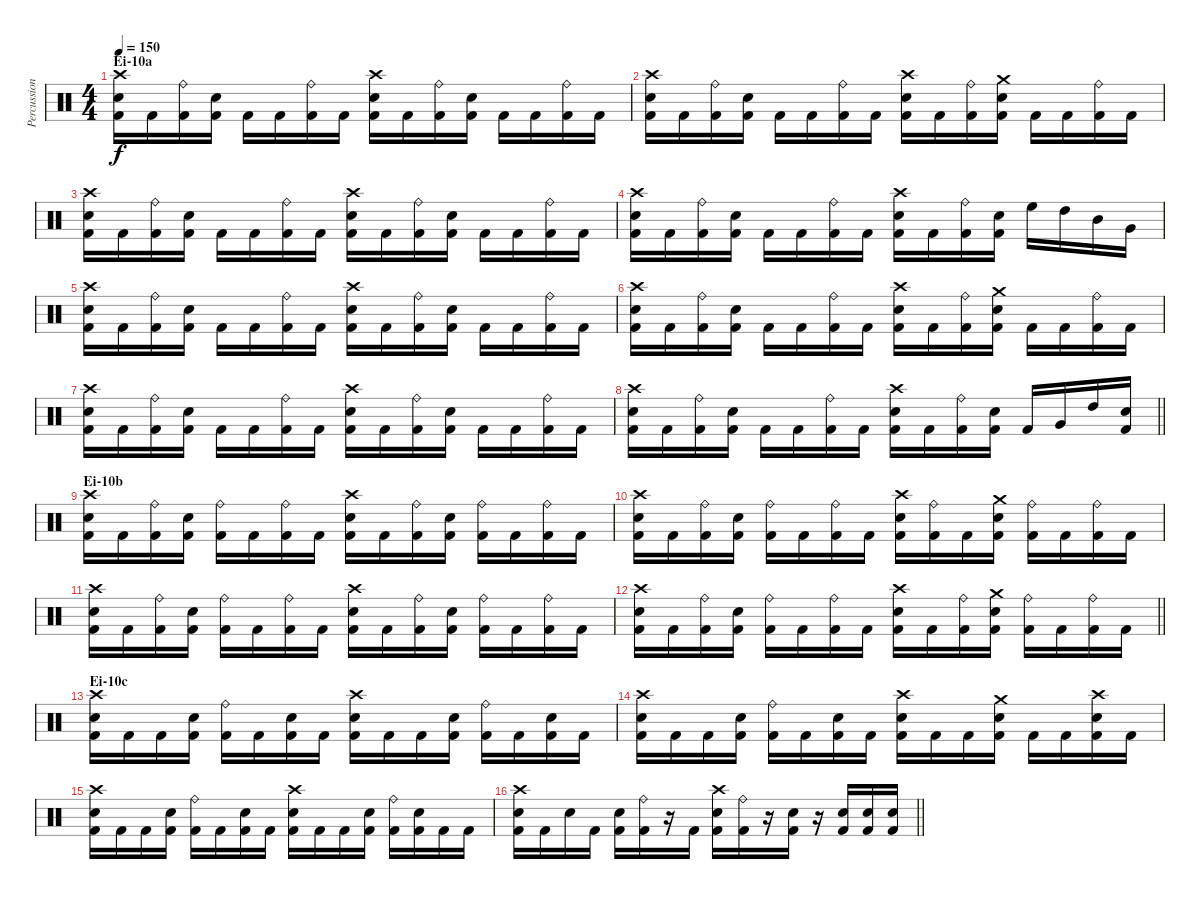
\track ("Percussion" "Percussion") {instrument percussion}
\staff {score}
\articulation defaults
\ts (4 4)
\section ("" "Ei-10a")
\tempo 150
\clef neutral
\ks c
("Crash high (hit)" "Electric Snare (hit)" "Kick (hit) 2").16{dy f} "Kick (hit) 2".16 ("Ride (bell)" "Kick (hit) 2").16 ("Electric Snare (hit)" "Kick (hit) 2").16 "Kick (hit) 2".16 "Kick (hit) 2".16 ("Ride (bell)" "Kick (hit) 2").16 "Kick (hit) 2".16 ("Crash high (hit)" "Electric Snare (hit)" "Kick (hit) 2").16 "Kick (hit) 2".16 ("Ride (bell)" "Kick (hit) 2").16 ("Electric Snare (hit)" "Kick (hit) 2").16 "Kick (hit) 2".16 "Kick (hit) 2".16 ("Ride (bell)" "Kick (hit) 2").16 "Kick (hit) 2".16 |
("Crash high (hit)" "Electric Snare (hit)" "Kick (hit) 2").16 "Kick (hit) 2".16 ("Ride (bell)" "Kick (hit) 2").16 ("Electric Snare (hit)" "Kick (hit) 2").16 "Kick (hit) 2".16 "Kick (hit) 2".16 ("Ride (bell)" "Kick (hit) 2").16 "Kick (hit) 2".16 ("Crash high (hit)" "Electric Snare (hit)" "Kick (hit) 2").16 "Kick (hit) 2".16 ("Ride (bell)" "Kick (hit) 2").16 ("Crash medium (hit)" "Electric Snare (hit)" "Kick (hit) 2").16 "Kick (hit) 2".16 "Kick (hit) 2".16 ("Ride (bell)" "Kick (hit) 2").16 "Kick (hit) 2".16 |
("Crash high (hit)" "Electric Snare (hit)" "Kick (hit) 2").16 "Kick (hit) 2".16 ("Ride (bell)" "Kick (hit) 2").16 ("Electric Snare (hit)" "Kick (hit) 2").16 "Kick (hit) 2".16 "Kick (hit) 2".16 ("Ride (bell)" "Kick (hit) 2").16 "Kick (hit) 2".16 ("Crash high (hit)" "Electric Snare (hit)" "Kick (hit) 2").16 "Kick (hit) 2".16 ("Ride (bell)" "Kick (hit) 2").16 ("Electric Snare (hit)" "Kick (hit) 2").16 "Kick (hit) 2".16 "Kick (hit) 2".16 ("Ride (bell)" "Kick (hit) 2").16 "Kick (hit) 2".16 |
("Crash high (hit)" "Electric Snare (hit)" "Kick (hit) 2").16 "Kick (hit) 2".16 ("Ride (bell)" "Kick (hit) 2").16 ("Electric Snare (hit)" "Kick (hit) 2").16 "Kick (hit) 2".16 "Kick (hit) 2".16 ("Ride (bell)" "Kick (hit) 2").16 "Kick (hit) 2".16 ("Crash high (hit)" "Electric Snare (hit)" "Kick (hit) 2").16 "Kick (hit) 2".16 ("Ride (bell)" "Kick (hit) 2").16 ("Electric Snare (hit)" "Kick (hit) 2").16 "High Floor Tom (hit)".16 "High Tom (hit)".16 "Mid Tom (hit)".16 "Very Low Tom (hit)".16 |
("Crash high (hit)" "Electric Snare (hit)" "Kick (hit) 2").16 "Kick (hit) 2".16 ("Ride (bell)" "Kick (hit) 2").16 ("Electric Snare (hit)" "Kick (hit) 2").16 "Kick (hit) 2".16 "Kick (hit) 2".16 ("Ride (bell)" "Kick (hit) 2").16 "Kick (hit) 2".16 ("Crash high (hit)" "Electric Snare (hit)" "Kick (hit) 2").16 "Kick (hit) 2".16 ("Ride (bell)" "Kick (hit) 2").16 ("Electric Snare (hit)" "Kick (hit) 2").16 "Kick (hit) 2".16 "Kick (hit) 2".16 ("Ride (bell)" "Kick (hit) 2").16 "Kick (hit) 2".16 |
("Crash high (hit)" "Electric Snare (hit)" "Kick (hit) 2").16 "Kick (hit) 2".16 ("Ride (bell)" "Kick (hit) 2").16 ("Electric Snare (hit)" "Kick (hit) 2").16 "Kick (hit) 2".16 "Kick (hit) 2".16 ("Ride (bell)" "Kick (hit) 2").16 "Kick (hit) 2".16 ("Crash high (hit)" "Electric Snare (hit)" "Kick (hit) 2").16 "Kick (hit) 2".16 ("Ride (bell)" "Kick (hit) 2").16 ("Crash medium (hit)" "Electric Snare (hit)" "Kick (hit) 2").16 "Kick (hit) 2".16 "Kick (hit) 2".16 ("Ride (bell)" "Kick (hit) 2").16 "Kick (hit) 2".16 |
("Crash high (hit)" "Electric Snare (hit)" "Kick (hit) 2").16 "Kick (hit) 2".16 ("Ride (bell)" "Kick (hit) 2").16 ("Electric Snare (hit)" "Kick (hit) 2").16 "Kick (hit) 2".16 "Kick (hit) 2".16 ("Ride (bell)" "Kick (hit) 2").16 "Kick (hit) 2".16 ("Crash high (hit)" "Electric Snare (hit)" "Kick (hit) 2").16 "Kick (hit) 2".16 ("Ride (bell)" "Kick (hit) 2").16 ("Electric Snare (hit)" "Kick (hit) 2").16 "Kick (hit) 2".16 "Kick (hit) 2".16 ("Ride (bell)" "Kick (hit) 2").16 "Kick (hit) 2".16 |
\barLineRight lightlight
("Crash high (hit)" "Electric Snare (hit)" "Kick (hit) 2").16 "Kick (hit) 2".16 ("Ride (bell)" "Kick (hit) 2").16 ("Electric Snare (hit)" "Kick (hit) 2").16 "Kick (hit) 2".16 "Kick (hit) 2".16 ("Ride (bell)" "Kick (hit) 2").16 "Kick (hit) 2".16 ("Crash high (hit)" "Electric Snare (hit)" "Kick (hit) 2").16 "Kick (hit) 2".16 ("Ride (bell)" "Kick (hit) 2").16 ("Electric Snare (hit)" "Kick (hit) 2").16 "Kick (hit) 2".16 "Very Low Tom (hit)".16 "High Tom (hit)".16 ("Electric Snare (hit)" "Kick (hit) 2").16 |
\section ("" "Ei-10b")
("Crash high (hit)" "Electric Snare (hit)" "Kick (hit) 2").16 "Kick (hit) 2".16 ("Ride (bell)" "Kick (hit) 2").16 ("Electric Snare (hit)" "Kick (hit) 2").16 ("Ride (bell)" "Kick (hit) 2").16 "Kick (hit) 2".16 ("Ride (bell)" "Kick (hit) 2").16 "Kick (hit) 2".16 ("Crash high (hit)" "Electric Snare (hit)" "Kick (hit) 2").16 "Kick (hit) 2".16 ("Ride (bell)" "Kick (hit) 2").16 ("Electric Snare (hit)" "Kick (hit) 2").16 ("Ride (bell)" "Kick (hit) 2").16 "Kick (hit) 2".16 ("Ride (bell)" "Kick (hit) 2").16 "Kick (hit) 2".16 |
("Crash high (hit)" "Electric Snare (hit)" "Kick (hit) 2").16 "Kick (hit) 2".16 ("Ride (bell)" "Kick (hit) 2").16 ("Electric Snare (hit)" "Kick (hit) 2").16 ("Ride (bell)" "Kick (hit) 2").16 "Kick (hit) 2".16 ("Ride (bell)" "Kick (hit) 2").16 "Kick (hit) 2".16 ("Crash high (hit)" "Electric Snare (hit)" "Kick (hit) 2").16 ("Ride (bell)" "Kick (hit) 2").16 "Kick (hit) 2".16 ("Crash medium (hit)" "Electric Snare (hit)" "Kick (hit) 2").16 ("Ride (bell)" "Kick (hit) 2").16 "Kick (hit) 2".16 ("Ride (bell)" "Kick (hit) 2").16 "Kick (hit) 2".16 |
("Crash high (hit)" "Electric Snare (hit)" "Kick (hit) 2").16 "Kick (hit) 2".16 ("Ride (bell)" "Kick (hit) 2").16 ("Electric Snare (hit)" "Kick (hit) 2").16 ("Ride (bell)" "Kick (hit) 2").16 "Kick (hit) 2".16 ("Ride (bell)" "Kick (hit) 2").16 "Kick (hit) 2".16 ("Crash high (hit)" "Electric Snare (hit)" "Kick (hit) 2").16 "Kick (hit) 2".16 ("Ride (bell)" "Kick (hit) 2").16 ("Electric Snare (hit)" "Kick (hit) 2").16 ("Ride (bell)" "Kick (hit) 2").16 "Kick (hit) 2".16 ("Ride (bell)" "Kick (hit) 2").16 "Kick (hit) 2".16 |
\barLineRight lightlight
("Crash high (hit)" "Electric Snare (hit)" "Kick (hit) 2").16 "Kick (hit) 2".16 ("Ride (bell)" "Kick (hit) 2").16 ("Electric Snare (hit)" "Kick (hit) 2").16 ("Ride (bell)" "Kick (hit) 2").16 "Kick (hit) 2".16 ("Ride (bell)" "Kick (hit) 2").16 "Kick (hit) 2".16 ("Crash high (hit)" "Electric Snare (hit)" "Kick (hit) 2").16 "Kick (hit) 2".16 ("Ride (bell)" "Kick (hit) 2").16 ("Crash medium (hit)" "Electric Snare (hit)" "Kick (hit) 2").16 ("Ride (bell)" "Kick (hit) 2").16 "Kick (hit) 2".16 ("Ride (bell)" "Kick (hit) 2").16 "Kick (hit) 2".16 |
\section ("" "Ei-10c")
("Crash high (hit)" "Electric Snare (hit)" "Kick (hit) 2").16 "Kick (hit) 2".16 "Kick (hit) 2".16 ("Electric Snare (hit)" "Kick (hit) 2").16 ("Ride (bell)" "Kick (hit) 2").16 "Kick (hit) 2".16 ("Electric Snare (hit)" "Kick (hit) 2").16 "Kick (hit) 2".16 ("Crash high (hit)" "Electric Snare (hit)" "Kick (hit) 2").16 "Kick (hit) 2".16 "Kick (hit) 2".16 ("Electric Snare (hit)" "Kick (hit) 2").16 ("Ride (bell)" "Kick (hit) 2").16 "Kick (hit) 2".16 ("Electric Snare (hit)" "Kick (hit) 2").16 "Kick (hit) 2".16 |
("Crash high (hit)" "Electric Snare (hit)" "Kick (hit) 2").16 "Kick (hit) 2".16 "Kick (hit) 2".16 ("Electric Snare (hit)" "Kick (hit) 2").16 ("Ride (bell)" "Kick (hit) 2").16 "Kick (hit) 2".16 ("Electric Snare (hit)" "Kick (hit) 2").16 "Kick (hit) 2".16 ("Crash high (hit)" "Electric Snare (hit)" "Kick (hit) 2").16 "Kick (hit) 2".16 "Kick (hit) 2".16 ("Crash medium (hit)" "Electric Snare (hit)" "Kick (hit) 2").16 "Kick (hit) 2".16 "Kick (hit) 2".16 ("Crash high (hit)" "Electric Snare (hit)" "Kick (hit) 2").16 "Kick (hit) 2".16 |
("Crash high (hit)" "Electric Snare (hit)" "Kick (hit) 2").16 "Kick (hit) 2".16 "Kick (hit) 2".16 ("Electric Snare (hit)" "Kick (hit) 2").16 ("Ride (bell)" "Kick (hit) 2").16 "Kick (hit) 2".16 ("Electric Snare (hit)" "Kick (hit) 2").16 "Kick (hit) 2".16 ("Crash high (hit)" "Electric Snare (hit)" "Kick (hit) 2").16 "Kick (hit) 2".16 "Kick (hit) 2".16 ("Electric Snare (hit)" "Kick (hit) 2").16 ("Ride (bell)" "Kick (hit) 2").16 ("Electric Snare (hit)" "Kick (hit) 2").16 "Kick (hit) 2".16 "Kick (hit) 2".16 |
\barLineRight lightlight
("Crash high (hit)" "Electric Snare (hit)" "Kick (hit) 2").16 "Kick (hit) 2".16 "Electric Snare (hit)".16 "Kick (hit) 2".16 ("Electric Snare (hit)" "Kick (hit) 2").16 ("Ride (bell)" "Kick (hit) 2").16 r.16 "Kick (hit) 2".16 ("Crash high (hit)" "Electric Snare (hit)" "Kick (hit) 2").16 ("Ride (bell)" "Kick (hit) 2").16 r.16 ("Electric Snare (hit)" "Kick (hit) 2").16 r.16 ("Electric Snare (hit)" "Kick (hit) 2").16 ("Electric Snare (hit)" "Kick (hit) 2").16 ("Electric Snare (hit)" "Kick (hit) 2").16
